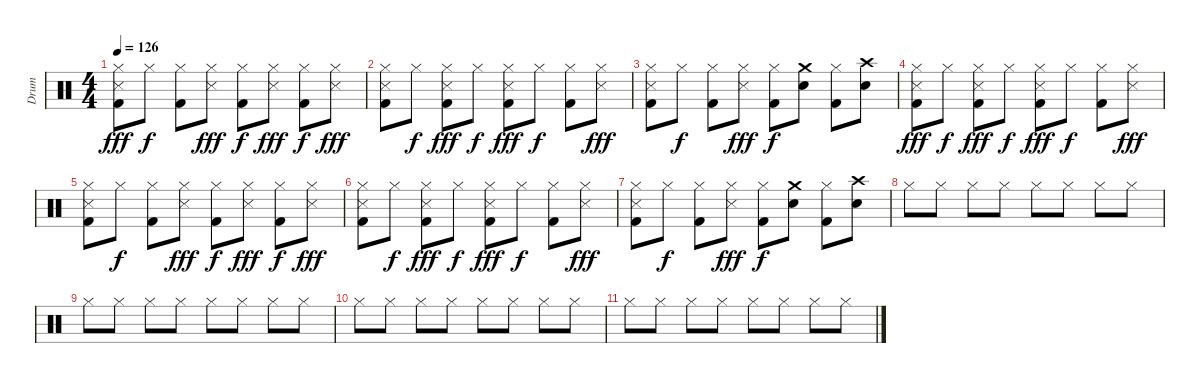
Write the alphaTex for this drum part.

\track ("Drum" "Drum") {instrument percussion}
\staff {score}
\articulation defaults
\ts (4 4)
\tempo 126
\clef neutral
\ks c
("Snare (side stick) 3" "Hi-Hat (closed)" "Kick (hit) 2").8{dy fff} "Hi-Hat (closed)".8{dy f} ("Hi-Hat (closed)" "Kick (hit) 2").8 ("Snare (side stick) 3" "Hi-Hat (closed)").8{dy fff} ("Hi-Hat (closed)" "Kick (hit) 2").8{dy f} ("Snare (side stick) 3" "Hi-Hat (closed)").8{dy fff} ("Hi-Hat (closed)" "Kick (hit) 2").8{dy f} ("Snare (side stick) 3" "Hi-Hat (closed)").8{dy fff} |
("Snare (side stick) 3" "Hi-Hat (closed)" "Kick (hit) 2").8 "Hi-Hat (closed)".8{dy f} ("Snare (side stick) 3" "Hi-Hat (closed)" "Kick (hit) 2").8{dy fff} "Hi-Hat (closed)".8{dy f} ("Snare (side stick) 3" "Hi-Hat (closed)" "Kick (hit) 2").8{dy fff} "Hi-Hat (closed)".8{dy f} ("Hi-Hat (closed)" "Kick (hit) 2").8 ("Snare (side stick) 3" "Hi-Hat (closed)").8{dy fff} |
("Snare (side stick) 3" "Hi-Hat (closed)" "Kick (hit) 2").8 "Hi-Hat (closed)".8{dy f} ("Hi-Hat (closed)" "Kick (hit) 2").8 ("Snare (side stick) 3" "Hi-Hat (closed)").8{dy fff} ("Hi-Hat (closed)" "Kick (hit) 2").8{dy f} ("Crash medium (hit)" "Electric Snare (hit)").8 ("Hi-Hat (closed)" "Kick (hit) 2").8 ("Crash high (hit)" "Electric Snare (hit)").8 |
("Snare (side stick) 3" "Hi-Hat (closed)" "Kick (hit) 2").8{dy fff} "Hi-Hat (closed)".8{dy f} ("Snare (side stick) 3" "Hi-Hat (closed)" "Kick (hit) 2").8{dy fff} "Hi-Hat (closed)".8{dy f} ("Snare (side stick) 3" "Hi-Hat (closed)" "Kick (hit) 2").8{dy fff} "Hi-Hat (closed)".8{dy f} ("Hi-Hat (closed)" "Kick (hit) 2").8 ("Snare (side stick) 3" "Hi-Hat (closed)").8{dy fff} |
("Snare (side stick) 3" "Hi-Hat (closed)" "Kick (hit) 2").8 "Hi-Hat (closed)".8{dy f} ("Hi-Hat (closed)" "Kick (hit) 2").8 ("Snare (side stick) 3" "Hi-Hat (closed)").8{dy fff} ("Hi-Hat (closed)" "Kick (hit) 2").8{dy f} ("Snare (side stick) 3" "Hi-Hat (closed)").8{dy fff} ("Hi-Hat (closed)" "Kick (hit) 2").8{dy f} ("Snare (side stick) 3" "Hi-Hat (closed)").8{dy fff} |
("Snare (side stick) 3" "Hi-Hat (closed)" "Kick (hit) 2").8 "Hi-Hat (closed)".8{dy f} ("Snare (side stick) 3" "Hi-Hat (closed)" "Kick (hit) 2").8{dy fff} "Hi-Hat (closed)".8{dy f} ("Snare (side stick) 3" "Hi-Hat (closed)" "Kick (hit) 2").8{dy fff} "Hi-Hat (closed)".8{dy f} ("Hi-Hat (closed)" "Kick (hit) 2").8 ("Snare (side stick) 3" "Hi-Hat (closed)").8{dy fff} |
("Snare (side stick) 3" "Hi-Hat (closed)" "Kick (hit) 2").8 "Hi-Hat (closed)".8{dy f} ("Hi-Hat (closed)" "Kick (hit) 2").8 ("Snare (side stick) 3" "Hi-Hat (closed)").8{dy fff} ("Hi-Hat (closed)" "Kick (hit) 2").8{dy f} ("Crash medium (hit)" "Electric Snare (hit)").8 ("Hi-Hat (closed)" "Kick (hit) 2").8 ("Crash high (hit)" "Electric Snare (hit)").8 |
"Hi-Hat (closed)".8 "Hi-Hat (closed)".8 "Hi-Hat (closed)".8 "Hi-Hat (closed)".8 "Hi-Hat (closed)".8 "Hi-Hat (closed)".8 "Hi-Hat (closed)".8 "Hi-Hat (closed)".8 |
"Hi-Hat (closed)".8 "Hi-Hat (closed)".8 "Hi-Hat (closed)".8 "Hi-Hat (closed)".8 "Hi-Hat (closed)".8 "Hi-Hat (closed)".8 "Hi-Hat (closed)".8 "Hi-Hat (closed)".8 |
"Hi-Hat (closed)".8 "Hi-Hat (closed)".8 "Hi-Hat (closed)".8 "Hi-Hat (closed)".8 "Hi-Hat (closed)".8 "Hi-Hat (closed)".8 "Hi-Hat (closed)".8 "Hi-Hat (closed)".8 |
"Hi-Hat (closed)".8 "Hi-Hat (closed)".8 "Hi-Hat (closed)".8 "Hi-Hat (closed)".8 "Hi-Hat (closed)".8 "Hi-Hat (closed)".8 "Hi-Hat (closed)".8 "Hi-Hat (closed)".8
